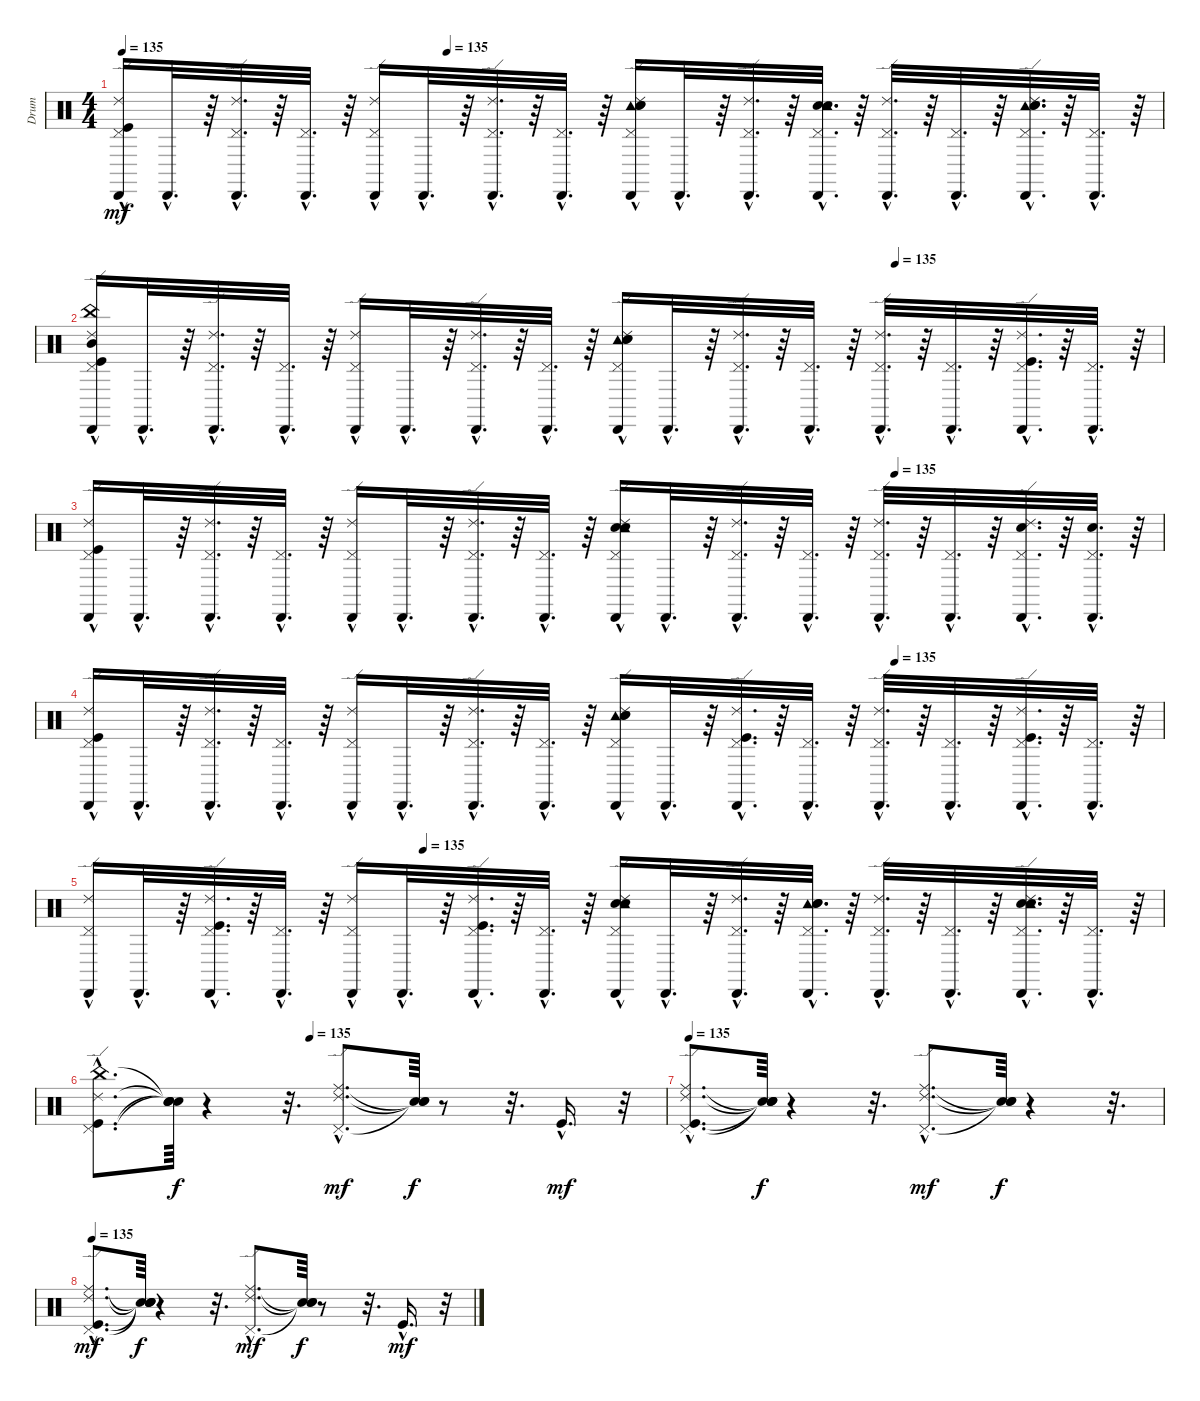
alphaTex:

\track ("Drum" "Drum") {instrument percussion}
\staff {score}
\articulation defaults
\ts (4 4)
\tempo 135
\tempo (135 0.3125)
\clef neutral
\ks c
("Cabasa (hit)"{hac} "Pedal Hi-Hat (hit)"{hac} "Ride (edge) 2"{hac} "Kick (hit)"{hac}).16{dy mf} "Cabasa (hit)"{hac}.32{d} r.64 ("Cabasa (hit)"{hac} "Ride (edge) 2"{hac} "Pedal Hi-Hat (hit)"{hac}).32{d} r.64 ("Cabasa (hit)"{hac} "Pedal Hi-Hat (hit)"{hac}).32{d} r.64 ("Cabasa (hit)"{hac} "Ride (edge) 2"{hac} "Pedal Hi-Hat (hit)"{hac}).16 "Cabasa (hit)"{hac}.32{d} r.64 ("Cabasa (hit)"{hac} "Ride (edge) 2"{hac} "Pedal Hi-Hat (hit)"{hac}).32{d} r.64 ("Cabasa (hit)"{hac} "Pedal Hi-Hat (hit)"{hac}).32{d} r.64 ("Cabasa (hit)"{hac} "Tambourine (hit)"{hac} "Ride (edge) 2"{hac} "Snare (hit) 2"{hac} "Electric Snare (hit)"{hac} "Pedal Hi-Hat (hit)"{hac}).16 "Cabasa (hit)"{hac}.32{d} r.64 ("Cabasa (hit)"{hac} "Ride (edge) 2"{hac} "Pedal Hi-Hat (hit)"{hac}).32{d} r.64 ("Cabasa (hit)"{hac} "Pedal Hi-Hat (hit)"{hac} "Snare (hit) 2"{hac} "Electric Snare (hit)"{hac} "Tambourine (hit)"{hac}).32{d} r.64 ("Cabasa (hit)"{hac} "Ride (edge) 2"{hac} "Pedal Hi-Hat (hit)"{hac}).32{d} r.64 ("Cabasa (hit)"{hac} "Pedal Hi-Hat (hit)"{hac}).32{d} r.64 ("Cabasa (hit)"{hac} "Ride (edge) 2"{hac} "Pedal Hi-Hat (hit)"{hac} "Tambourine (hit)"{hac} "Electric Snare (hit)"{hac} "Snare (hit) 2"{hac}).32{d} r.64 ("Cabasa (hit)"{hac} "Pedal Hi-Hat (hit)"{hac}).32{d} r.64 |
\tempo (135 0.75)
("Cabasa (hit)"{hac} "Ride (edge) 2"{hac} "Kick (hit)"{hac} "Pedal Hi-Hat (hit)"{hac} "China (hit)"{hac} "Mid Tom (hit)"{hac}).16 "Cabasa (hit)"{hac}.32{d} r.64 ("Cabasa (hit)"{hac} "Ride (edge) 2"{hac} "Pedal Hi-Hat (hit)"{hac}).32{d} r.64 ("Cabasa (hit)"{hac} "Pedal Hi-Hat (hit)"{hac}).32{d} r.64 ("Cabasa (hit)"{hac} "Ride (edge) 2"{hac} "Pedal Hi-Hat (hit)"{hac}).16 "Cabasa (hit)"{hac}.32{d} r.64 ("Cabasa (hit)"{hac} "Ride (edge) 2"{hac} "Pedal Hi-Hat (hit)"{hac}).32{d} r.64 ("Cabasa (hit)"{hac} "Pedal Hi-Hat (hit)"{hac}).32{d} r.64 ("Cabasa (hit)"{hac} "Tambourine (hit)"{hac} "Ride (edge) 2"{hac} "Pedal Hi-Hat (hit)"{hac} "Electric Snare (hit)"{hac} "Snare (hit) 2"{hac}).16 "Cabasa (hit)"{hac}.32{d} r.64 ("Cabasa (hit)"{hac} "Ride (edge) 2"{hac} "Pedal Hi-Hat (hit)"{hac}).32{d} r.64 ("Cabasa (hit)"{hac} "Pedal Hi-Hat (hit)"{hac}).32{d} r.64 ("Cabasa (hit)"{hac} "Ride (edge) 2"{hac} "Pedal Hi-Hat (hit)"{hac}).32{d} r.64 ("Cabasa (hit)"{hac} "Pedal Hi-Hat (hit)"{hac}).32{d} r.64 ("Cabasa (hit)"{hac} "Ride (edge) 2"{hac} "Kick (hit)"{hac} "Pedal Hi-Hat (hit)"{hac}).32{d} r.64 ("Cabasa (hit)"{hac} "Pedal Hi-Hat (hit)"{hac}).32{d} r.64 |
\tempo (135 0.75)
("Cabasa (hit)"{hac} "Ride (edge) 2"{hac} "Kick (hit)"{hac} "Pedal Hi-Hat (hit)"{hac}).16 "Cabasa (hit)"{hac}.32{d} r.64 ("Cabasa (hit)"{hac} "Ride (edge) 2"{hac} "Pedal Hi-Hat (hit)"{hac}).32{d} r.64 ("Cabasa (hit)"{hac} "Pedal Hi-Hat (hit)"{hac}).32{d} r.64 ("Cabasa (hit)"{hac} "Ride (edge) 2"{hac} "Pedal Hi-Hat (hit)"{hac}).16 "Cabasa (hit)"{hac}.32{d} r.64 ("Cabasa (hit)"{hac} "Ride (edge) 2"{hac} "Pedal Hi-Hat (hit)"{hac}).32{d} r.64 ("Cabasa (hit)"{hac} "Pedal Hi-Hat (hit)"{hac}).32{d} r.64 ("Cabasa (hit)"{hac} "Electric Snare (hit)"{hac} "Tambourine (hit)"{hac} "Ride (edge) 2"{hac} "Snare (hit) 2"{hac} "Pedal Hi-Hat (hit)"{hac}).16 "Cabasa (hit)"{hac}.32{d} r.64 ("Cabasa (hit)"{hac} "Ride (edge) 2"{hac} "Pedal Hi-Hat (hit)"{hac}).32{d} r.64 ("Cabasa (hit)"{hac} "Pedal Hi-Hat (hit)"{hac}).32{d} r.64 ("Cabasa (hit)"{hac} "Pedal Hi-Hat (hit)"{hac} "Ride (edge) 2"{hac}).32{d} r.64 ("Cabasa (hit)"{hac} "Pedal Hi-Hat (hit)"{hac}).32{d} r.64 ("Cabasa (hit)"{hac} "Ride (edge) 2"{hac} "Pedal Hi-Hat (hit)"{hac} "Snare (hit) 2"{hac}).32{d} r.64 ("Cabasa (hit)"{hac} "Pedal Hi-Hat (hit)"{hac} "Snare (hit) 2"{hac}).32{d} r.64 |
\tempo (135 0.75)
("Cabasa (hit)"{hac} "Ride (edge) 2"{hac} "Kick (hit)"{hac} "Pedal Hi-Hat (hit)"{hac}).16 "Cabasa (hit)"{hac}.32{d} r.64 ("Cabasa (hit)"{hac} "Ride (edge) 2"{hac} "Pedal Hi-Hat (hit)"{hac}).32{d} r.64 ("Cabasa (hit)"{hac} "Pedal Hi-Hat (hit)"{hac}).32{d} r.64 ("Cabasa (hit)"{hac} "Ride (edge) 2"{hac} "Pedal Hi-Hat (hit)"{hac}).16 "Cabasa (hit)"{hac}.32{d} r.64 ("Cabasa (hit)"{hac} "Ride (edge) 2"{hac} "Pedal Hi-Hat (hit)"{hac}).32{d} r.64 ("Cabasa (hit)"{hac} "Pedal Hi-Hat (hit)"{hac}).32{d} r.64 ("Cabasa (hit)"{hac} "Tambourine (hit)"{hac} "Ride (edge) 2"{hac} "Pedal Hi-Hat (hit)"{hac} "Electric Snare (hit)"{hac} "Snare (hit) 2"{hac}).16 "Cabasa (hit)"{hac}.32{d} r.64 ("Cabasa (hit)"{hac} "Ride (edge) 2"{hac} "Pedal Hi-Hat (hit)"{hac} "Kick (hit)"{hac}).32{d} r.64 ("Cabasa (hit)"{hac} "Pedal Hi-Hat (hit)"{hac}).32{d} r.64 ("Cabasa (hit)"{hac} "Ride (edge) 2"{hac} "Pedal Hi-Hat (hit)"{hac}).32{d} r.64 ("Cabasa (hit)"{hac} "Pedal Hi-Hat (hit)"{hac}).32{d} r.64 ("Cabasa (hit)"{hac} "Ride (edge) 2"{hac} "Pedal Hi-Hat (hit)"{hac} "Kick (hit)"{hac}).32{d} r.64 ("Cabasa (hit)"{hac} "Pedal Hi-Hat (hit)"{hac}).32{d} r.64 |
\tempo (135 0.3125)
("Cabasa (hit)"{hac} "Ride (edge) 2"{hac} "Pedal Hi-Hat (hit)"{hac}).16 "Cabasa (hit)"{hac}.32{d} r.64 ("Cabasa (hit)"{hac} "Pedal Hi-Hat (hit)"{hac} "Ride (edge) 2"{hac} "Kick (hit)"{hac}).32{d} r.64 ("Cabasa (hit)"{hac} "Pedal Hi-Hat (hit)"{hac}).32{d} r.64 ("Cabasa (hit)"{hac} "Pedal Hi-Hat (hit)"{hac} "Ride (edge) 2"{hac}).16 "Cabasa (hit)"{hac}.32{d} r.64 ("Cabasa (hit)"{hac} "Pedal Hi-Hat (hit)"{hac} "Ride (edge) 2"{hac} "Kick (hit)"{hac}).32{d} r.64 ("Cabasa (hit)"{hac} "Pedal Hi-Hat (hit)"{hac}).32{d} r.64 ("Cabasa (hit)"{hac} "Pedal Hi-Hat (hit)"{hac} "Electric Snare (hit)"{hac} "Snare (hit) 2"{hac} "Ride (edge) 2"{hac} "Tambourine (hit)"{hac}).16 "Cabasa (hit)"{hac}.32{d} r.64 ("Cabasa (hit)"{hac} "Pedal Hi-Hat (hit)"{hac} "Ride (edge) 2"{hac}).32{d} r.64 ("Cabasa (hit)"{hac} "Tambourine (hit)"{hac} "Electric Snare (hit)"{hac} "Snare (hit) 2"{hac} "Pedal Hi-Hat (hit)"{hac}).32{d} r.64 ("Cabasa (hit)"{hac} "Pedal Hi-Hat (hit)"{hac} "Ride (edge) 2"{hac}).32{d} r.64 ("Cabasa (hit)"{hac} "Pedal Hi-Hat (hit)"{hac}).32{d} r.64 ("Cabasa (hit)"{hac} "Snare (hit) 2"{hac} "Electric Snare (hit)"{hac} "Tambourine (hit)"{hac} "Pedal Hi-Hat (hit)"{hac} "Ride (edge) 2"{hac}).32{d} r.64 ("Cabasa (hit)"{hac} "Pedal Hi-Hat (hit)"{hac}).32{d} r.64 |
\tempo (135 0.375)
("Ride (edge) 2"{hac} "China (hit)"{hac} "Pedal Hi-Hat (hit)"{hac} "Kick (hit)"{hac}).8{d} ("Snare (hit)"{t} "Snare (hit)"{t} "Snare (hit)"{t} "Snare (hit)"{t}).64{dy f} r.4 r.32{d} ("Ride (middle)"{hac} "Ride (edge) 2"{hac} "Pedal Hi-Hat (hit)"{hac}).8{d dy mf} ("Snare (hit)"{t} "Snare (hit)"{t} "Snare (hit)"{t}).64{dy f} r.8 r.32{d} "Kick (hit)"{hac}.16{d dy mf} r.32 |
\tempo 135
("Ride (edge) 2"{hac} "Kick (hit)"{hac} "Ride (middle)"{hac} "Pedal Hi-Hat (hit)"{hac}).8{d} ("Snare (hit)"{t} "Snare (hit)"{t} "Snare (hit)"{t} "Snare (hit)"{t}).64{dy f} r.4 r.32{d} ("Ride (edge) 2"{hac} "Ride (middle)"{hac} "Pedal Hi-Hat (hit)"{hac}).8{d dy mf} ("Snare (hit)"{t} "Snare (hit)"{t} "Snare (hit)"{t}).64{dy f} r.4 r.32{d} |
\tempo 135
("Ride (edge) 2"{hac} "Kick (hit)"{hac} "Ride (middle)"{hac} "Pedal Hi-Hat (hit)"{hac}).8{d dy mf} ("Snare (hit)"{t} "Snare (hit)"{t} "Snare (hit)"{t} "Snare (hit)"{t}).64{dy f} r.4 r.32{d} ("Ride (edge) 2"{hac} "Ride (middle)"{hac} "Pedal Hi-Hat (hit)"{hac}).8{d dy mf} ("Snare (hit)"{t} "Snare (hit)"{t} "Snare (hit)"{t}).64{dy f} r.8 r.32{d} "Kick (hit)"{hac}.16{d dy mf} r.32
